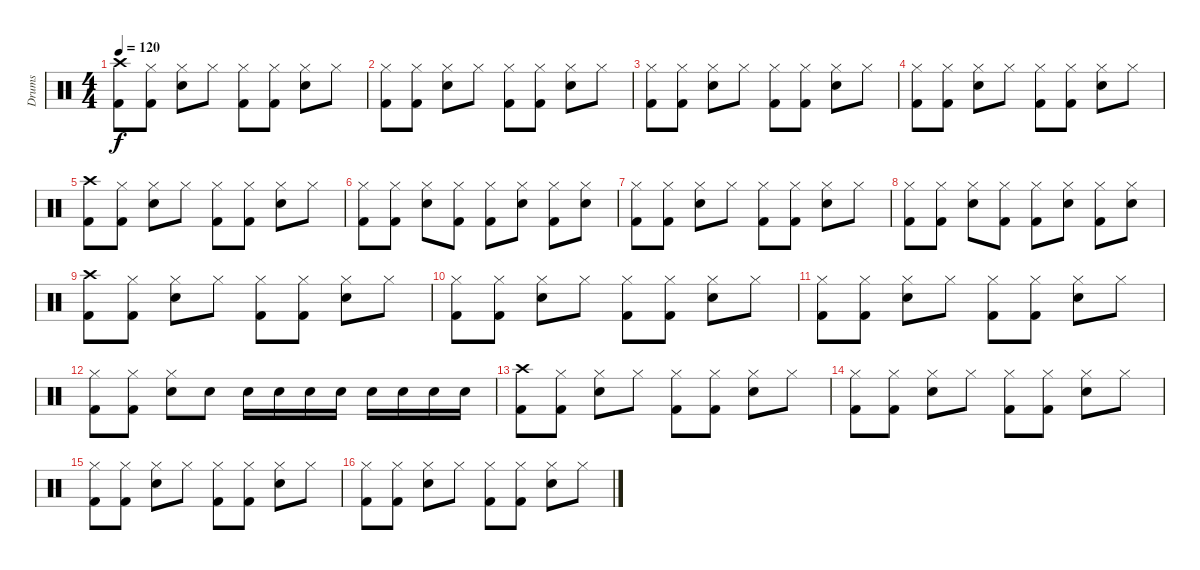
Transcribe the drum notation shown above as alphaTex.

\track ("Drums" "Drums") {instrument percussion}
\staff {score}
\articulation defaults
\ts (4 4)
\tempo 120
\clef neutral
\ks c
("Crash high (hit)" "Kick (hit) 2").8{dy f} ("Hi-Hat (closed)" "Kick (hit) 2").8 ("Hi-Hat (closed)" "Electric Snare (hit)").8 "Hi-Hat (closed)".8 ("Hi-Hat (closed)" "Kick (hit) 2").8 ("Hi-Hat (closed)" "Kick (hit) 2").8 ("Hi-Hat (closed)" "Electric Snare (hit)").8 "Hi-Hat (closed)".8 |
("Hi-Hat (closed)" "Kick (hit) 2").8 ("Hi-Hat (closed)" "Kick (hit) 2").8 ("Hi-Hat (closed)" "Electric Snare (hit)").8 "Hi-Hat (closed)".8 ("Hi-Hat (closed)" "Kick (hit) 2").8 ("Hi-Hat (closed)" "Kick (hit) 2").8 ("Hi-Hat (closed)" "Electric Snare (hit)").8 "Hi-Hat (closed)".8 |
("Hi-Hat (closed)" "Kick (hit) 2").8 ("Hi-Hat (closed)" "Kick (hit) 2").8 ("Hi-Hat (closed)" "Electric Snare (hit)").8 "Hi-Hat (closed)".8 ("Hi-Hat (closed)" "Kick (hit) 2").8 ("Hi-Hat (closed)" "Kick (hit) 2").8 ("Hi-Hat (closed)" "Electric Snare (hit)").8 "Hi-Hat (closed)".8 |
("Hi-Hat (closed)" "Kick (hit) 2").8 ("Hi-Hat (closed)" "Kick (hit) 2").8 ("Hi-Hat (closed)" "Electric Snare (hit)").8 "Hi-Hat (closed)".8 ("Hi-Hat (closed)" "Kick (hit) 2").8 ("Hi-Hat (closed)" "Kick (hit) 2").8 ("Hi-Hat (closed)" "Electric Snare (hit)").8 "Hi-Hat (closed)".8 |
("Crash high (hit)" "Kick (hit) 2").8 ("Hi-Hat (closed)" "Kick (hit) 2").8 ("Hi-Hat (closed)" "Electric Snare (hit)").8 "Hi-Hat (closed)".8 ("Hi-Hat (closed)" "Kick (hit) 2").8 ("Hi-Hat (closed)" "Kick (hit) 2").8 ("Hi-Hat (closed)" "Electric Snare (hit)").8 "Hi-Hat (closed)".8 |
("Hi-Hat (closed)" "Kick (hit) 2").8 ("Hi-Hat (closed)" "Kick (hit) 2").8 ("Hi-Hat (closed)" "Electric Snare (hit)").8 ("Hi-Hat (closed)" "Kick (hit) 2").8 ("Hi-Hat (closed)" "Kick (hit) 2").8 ("Hi-Hat (closed)" "Electric Snare (hit)").8 ("Hi-Hat (closed)" "Kick (hit) 2").8 ("Hi-Hat (closed)" "Electric Snare (hit)").8 |
("Hi-Hat (closed)" "Kick (hit) 2").8 ("Hi-Hat (closed)" "Kick (hit) 2").8 ("Hi-Hat (closed)" "Electric Snare (hit)").8 "Hi-Hat (closed)".8 ("Hi-Hat (closed)" "Kick (hit) 2").8 ("Hi-Hat (closed)" "Kick (hit) 2").8 ("Hi-Hat (closed)" "Electric Snare (hit)").8 "Hi-Hat (closed)".8 |
("Hi-Hat (closed)" "Kick (hit) 2").8 ("Hi-Hat (closed)" "Kick (hit) 2").8 ("Hi-Hat (closed)" "Electric Snare (hit)").8 ("Hi-Hat (closed)" "Kick (hit) 2").8 ("Hi-Hat (closed)" "Kick (hit) 2").8 ("Hi-Hat (closed)" "Electric Snare (hit)").8 ("Hi-Hat (closed)" "Kick (hit) 2").8 ("Hi-Hat (closed)" "Electric Snare (hit)").8 |
("Crash high (hit)" "Kick (hit) 2").8 ("Hi-Hat (closed)" "Kick (hit) 2").8 ("Hi-Hat (closed)" "Electric Snare (hit)").8 "Hi-Hat (closed)".8 ("Hi-Hat (closed)" "Kick (hit) 2").8 ("Hi-Hat (closed)" "Kick (hit) 2").8 ("Hi-Hat (closed)" "Electric Snare (hit)").8 "Hi-Hat (closed)".8 |
("Hi-Hat (closed)" "Kick (hit) 2").8 ("Hi-Hat (closed)" "Kick (hit) 2").8 ("Hi-Hat (closed)" "Electric Snare (hit)").8 "Hi-Hat (closed)".8 ("Hi-Hat (closed)" "Kick (hit) 2").8 ("Hi-Hat (closed)" "Kick (hit) 2").8 ("Hi-Hat (closed)" "Electric Snare (hit)").8 "Hi-Hat (closed)".8 |
("Hi-Hat (closed)" "Kick (hit) 2").8 ("Hi-Hat (closed)" "Kick (hit) 2").8 ("Hi-Hat (closed)" "Electric Snare (hit)").8 "Hi-Hat (closed)".8 ("Hi-Hat (closed)" "Kick (hit) 2").8 ("Hi-Hat (closed)" "Kick (hit) 2").8 ("Hi-Hat (closed)" "Electric Snare (hit)").8 "Hi-Hat (closed)".8 |
("Hi-Hat (closed)" "Kick (hit) 2").8 ("Hi-Hat (closed)" "Kick (hit) 2").8 ("Hi-Hat (closed)" "Electric Snare (hit)").8 "Electric Snare (hit)".8 "Electric Snare (hit)".16 "Electric Snare (hit)".16 "Electric Snare (hit)".16 "Electric Snare (hit)".16 "Electric Snare (hit)".16 "Electric Snare (hit)".16 "Electric Snare (hit)".16 "Electric Snare (hit)".16 |
("Crash high (hit)" "Kick (hit) 2").8 ("Hi-Hat (closed)" "Kick (hit) 2").8 ("Hi-Hat (closed)" "Electric Snare (hit)").8 "Hi-Hat (closed)".8 ("Hi-Hat (closed)" "Kick (hit) 2").8 ("Hi-Hat (closed)" "Kick (hit) 2").8 ("Hi-Hat (closed)" "Electric Snare (hit)").8 "Hi-Hat (closed)".8 |
("Hi-Hat (closed)" "Kick (hit) 2").8 ("Hi-Hat (closed)" "Kick (hit) 2").8 ("Hi-Hat (closed)" "Electric Snare (hit)").8 "Hi-Hat (closed)".8 ("Hi-Hat (closed)" "Kick (hit) 2").8 ("Hi-Hat (closed)" "Kick (hit) 2").8 ("Hi-Hat (closed)" "Electric Snare (hit)").8 "Hi-Hat (closed)".8 |
("Hi-Hat (closed)" "Kick (hit) 2").8 ("Hi-Hat (closed)" "Kick (hit) 2").8 ("Hi-Hat (closed)" "Electric Snare (hit)").8 "Hi-Hat (closed)".8 ("Hi-Hat (closed)" "Kick (hit) 2").8 ("Hi-Hat (closed)" "Kick (hit) 2").8 ("Hi-Hat (closed)" "Electric Snare (hit)").8 "Hi-Hat (closed)".8 |
("Hi-Hat (closed)" "Kick (hit) 2").8 ("Hi-Hat (closed)" "Kick (hit) 2").8 ("Hi-Hat (closed)" "Electric Snare (hit)").8 "Hi-Hat (closed)".8 ("Hi-Hat (closed)" "Kick (hit) 2").8 ("Hi-Hat (closed)" "Kick (hit) 2").8 ("Hi-Hat (closed)" "Electric Snare (hit)").8 "Hi-Hat (closed)".8
